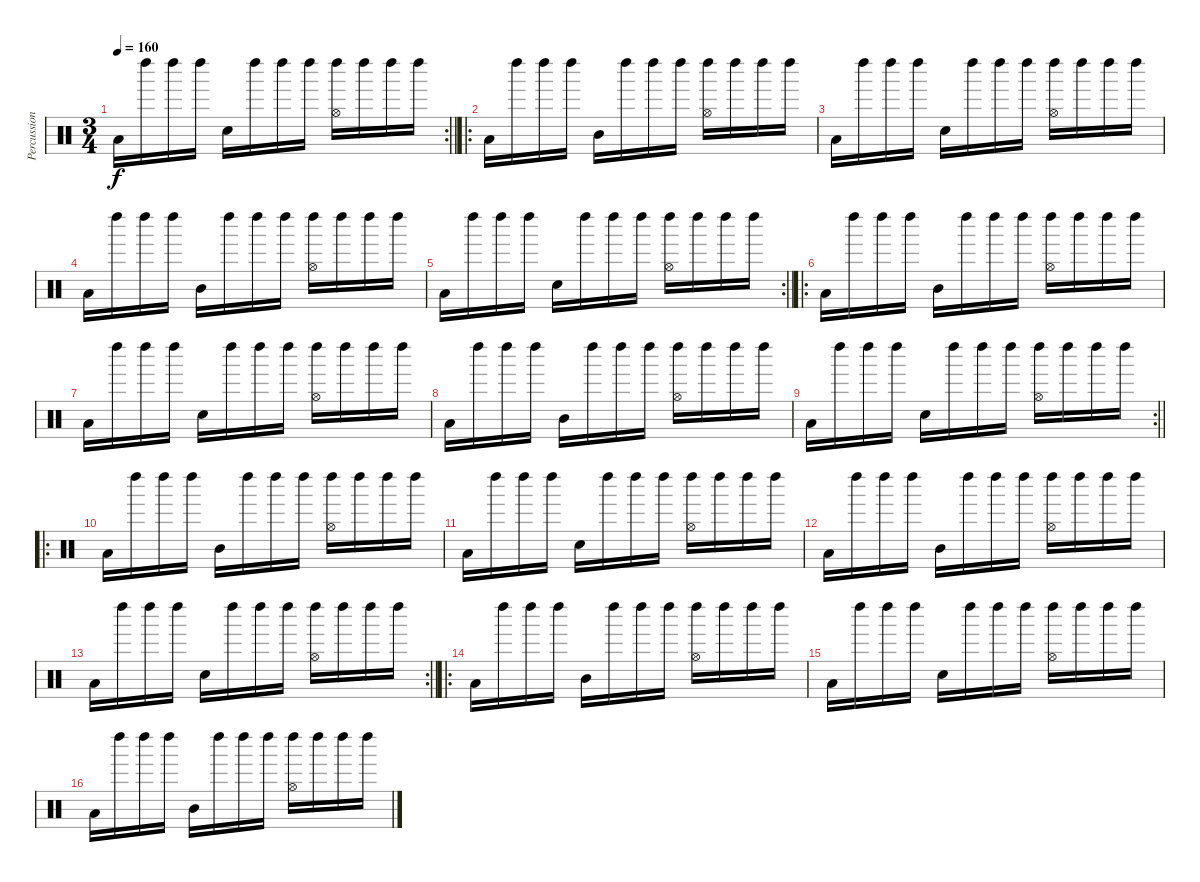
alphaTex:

\track ("Percussion" "Percussion") {instrument percussion}
\staff {score}
\articulation defaults
\rc 2
\ts (3 4)
\tempo 160
\clef neutral
\barLineRight lightlight
\ks c "Low Floor Tom (hit)".16{dy f} "Left Maraca (hit)".16 "Left Maraca (hit)".16 "Left Maraca (hit)".16 "Snare (hit) 2".16 "Left Maraca (hit)".16 "Left Maraca (hit)".16 "Left Maraca (hit)".16
("Left Maraca (hit)" "Hi-Hat (open)").16 "Left Maraca (hit)".16 "Left Maraca (hit)".16 "Left Maraca (hit)".16 |
\ro "Low Floor Tom (hit)".16 "Left Maraca (hit)".16 "Left Maraca (hit)".16 "Left Maraca (hit)".16 "Mid Tom (hit)".16 "Left Maraca (hit)".16 "Left Maraca (hit)".16 "Left Maraca (hit)".16
("Left Maraca (hit)" "Hi-Hat (open)").16 "Left Maraca (hit)".16 "Left Maraca (hit)".16 "Left Maraca (hit)".16 |
"Low Floor Tom (hit)".16 "Left Maraca (hit)".16 "Left Maraca (hit)".16 "Left Maraca (hit)".16 "Snare (hit) 2".16 "Left Maraca (hit)".16 "Left Maraca (hit)".16 "Left Maraca (hit)".16 ("Left Maraca (hit)" "Hi-Hat (open)").16 "Left Maraca (hit)".16 "Left Maraca (hit)".16 "Left Maraca (hit)".16 |
"Low Floor Tom (hit)".16 "Left Maraca (hit)".16 "Left Maraca (hit)".16 "Left Maraca (hit)".16 "Mid Tom (hit)".16 "Left Maraca (hit)".16 "Left Maraca (hit)".16 "Left Maraca (hit)".16 ("Left Maraca (hit)" "Hi-Hat (open)").16 "Left Maraca (hit)".16 "Left Maraca (hit)".16 "Left Maraca (hit)".16 |
\rc 2
\barLineRight lightlight "Low Floor Tom (hit)".16 "Left Maraca (hit)".16 "Left Maraca (hit)".16 "Left Maraca (hit)".16 "Snare (hit) 2".16 "Left Maraca (hit)".16 "Left Maraca (hit)".16 "Left Maraca (hit)".16
("Left Maraca (hit)" "Hi-Hat (open)").16 "Left Maraca (hit)".16 "Left Maraca (hit)".16 "Left Maraca (hit)".16 |
\ro "Low Floor Tom (hit)".16 "Left Maraca (hit)".16 "Left Maraca (hit)".16 "Left Maraca (hit)".16 "Mid Tom (hit)".16 "Left Maraca (hit)".16 "Left Maraca (hit)".16 "Left Maraca (hit)".16
("Left Maraca (hit)" "Hi-Hat (open)").16 "Left Maraca (hit)".16 "Left Maraca (hit)".16 "Left Maraca (hit)".16 |
"Low Floor Tom (hit)".16 "Left Maraca (hit)".16 "Left Maraca (hit)".16 "Left Maraca (hit)".16 "Snare (hit) 2".16 "Left Maraca (hit)".16 "Left Maraca (hit)".16 "Left Maraca (hit)".16 ("Left Maraca (hit)" "Hi-Hat (open)").16 "Left Maraca (hit)".16 "Left Maraca (hit)".16 "Left Maraca (hit)".16 |
"Low Floor Tom (hit)".16 "Left Maraca (hit)".16 "Left Maraca (hit)".16 "Left Maraca (hit)".16 "Mid Tom (hit)".16 "Left Maraca (hit)".16 "Left Maraca (hit)".16 "Left Maraca (hit)".16 ("Left Maraca (hit)" "Hi-Hat (open)").16 "Left Maraca (hit)".16 "Left Maraca (hit)".16 "Left Maraca (hit)".16 |
\rc 2
\barLineRight lightlight "Low Floor Tom (hit)".16 "Left Maraca (hit)".16 "Left Maraca (hit)".16 "Left Maraca (hit)".16 "Snare (hit) 2".16 "Left Maraca (hit)".16 "Left Maraca (hit)".16 "Left Maraca (hit)".16
("Left Maraca (hit)" "Hi-Hat (open)").16 "Left Maraca (hit)".16 "Left Maraca (hit)".16 "Left Maraca (hit)".16 |
\ro "Low Floor Tom (hit)".16 "Left Maraca (hit)".16 "Left Maraca (hit)".16 "Left Maraca (hit)".16 "Mid Tom (hit)".16 "Left Maraca (hit)".16 "Left Maraca (hit)".16 "Left Maraca (hit)".16
("Left Maraca (hit)" "Hi-Hat (open)").16 "Left Maraca (hit)".16 "Left Maraca (hit)".16 "Left Maraca (hit)".16 |
"Low Floor Tom (hit)".16 "Left Maraca (hit)".16 "Left Maraca (hit)".16 "Left Maraca (hit)".16 "Snare (hit) 2".16 "Left Maraca (hit)".16 "Left Maraca (hit)".16 "Left Maraca (hit)".16 ("Left Maraca (hit)" "Hi-Hat (open)").16 "Left Maraca (hit)".16 "Left Maraca (hit)".16 "Left Maraca (hit)".16 |
"Low Floor Tom (hit)".16 "Left Maraca (hit)".16 "Left Maraca (hit)".16 "Left Maraca (hit)".16 "Mid Tom (hit)".16 "Left Maraca (hit)".16 "Left Maraca (hit)".16 "Left Maraca (hit)".16 ("Left Maraca (hit)" "Hi-Hat (open)").16 "Left Maraca (hit)".16 "Left Maraca (hit)".16 "Left Maraca (hit)".16 |
\rc 2
\barLineRight lightlight "Low Floor Tom (hit)".16 "Left Maraca (hit)".16 "Left Maraca (hit)".16 "Left Maraca (hit)".16 "Snare (hit) 2".16 "Left Maraca (hit)".16 "Left Maraca (hit)".16 "Left Maraca (hit)".16
("Left Maraca (hit)" "Hi-Hat (open)").16 "Left Maraca (hit)".16 "Left Maraca (hit)".16 "Left Maraca (hit)".16 |
\ro "Low Floor Tom (hit)".16 "Left Maraca (hit)".16 "Left Maraca (hit)".16 "Left Maraca (hit)".16 "Mid Tom (hit)".16 "Left Maraca (hit)".16 "Left Maraca (hit)".16 "Left Maraca (hit)".16
("Left Maraca (hit)" "Hi-Hat (open)").16 "Left Maraca (hit)".16 "Left Maraca (hit)".16 "Left Maraca (hit)".16 |
"Low Floor Tom (hit)".16 "Left Maraca (hit)".16 "Left Maraca (hit)".16 "Left Maraca (hit)".16 "Snare (hit) 2".16 "Left Maraca (hit)".16 "Left Maraca (hit)".16 "Left Maraca (hit)".16 ("Left Maraca (hit)" "Hi-Hat (open)").16 "Left Maraca (hit)".16 "Left Maraca (hit)".16 "Left Maraca (hit)".16 |
"Low Floor Tom (hit)".16 "Left Maraca (hit)".16 "Left Maraca (hit)".16 "Left Maraca (hit)".16 "Mid Tom (hit)".16 "Left Maraca (hit)".16 "Left Maraca (hit)".16 "Left Maraca (hit)".16 ("Left Maraca (hit)" "Hi-Hat (open)").16 "Left Maraca (hit)".16 "Left Maraca (hit)".16 "Left Maraca (hit)".16
